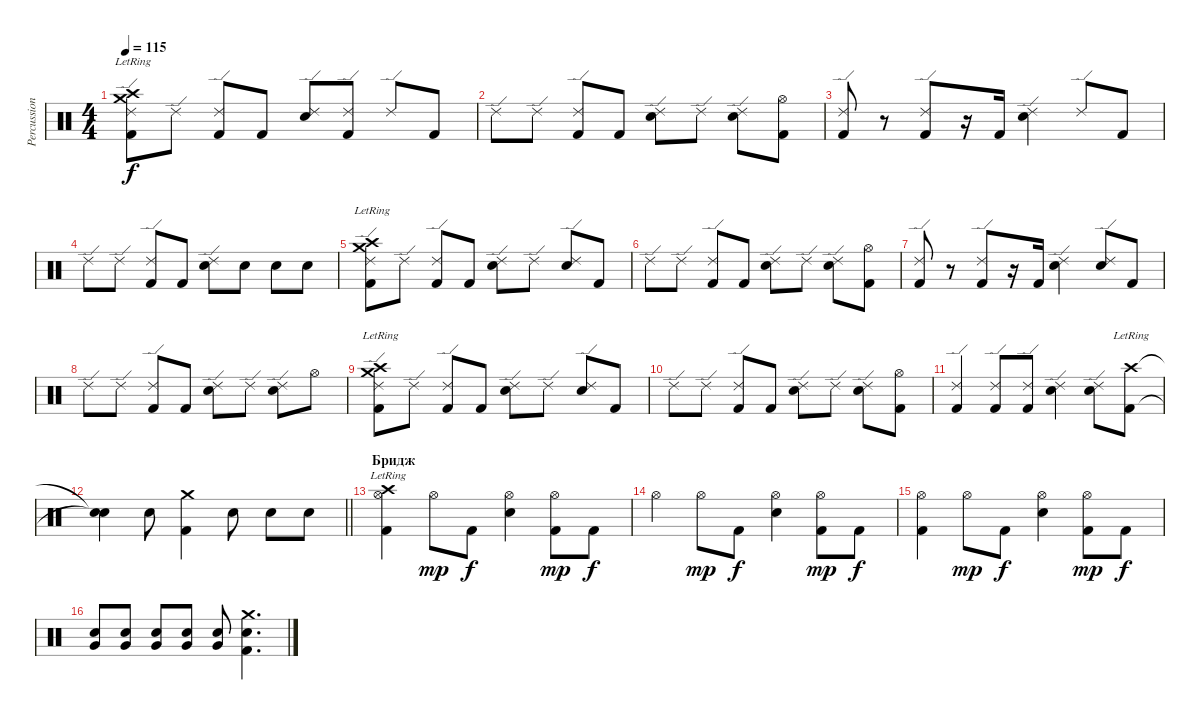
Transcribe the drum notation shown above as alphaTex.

\track ("Percussions" "Percussion") {instrument percussion}
\staff {score}
\articulation defaults
\ts (4 4)
\tempo 115
\clef neutral
\ks c
("Crash medium (hit)"{lr} "Crash high (hit)"{lr} "Kick (hit) 2" "Ride (edge) 2").8{dy f} "Ride (edge) 2".8 ("Kick (hit) 2" "Ride (edge) 2").8 "Kick (hit) 2".8 ("Electric Snare (hit)" "Ride (edge) 2").8 ("Kick (hit) 2" "Ride (edge) 2").8 "Ride (edge) 2".8 "Kick (hit) 2".8 |
"Ride (edge) 2".8 "Ride (edge) 2".8 ("Ride (edge) 2" "Kick (hit) 2").8 "Kick (hit) 2".8 ("Electric Snare (hit)" "Ride (edge) 2").8 "Ride (edge) 2".8 ("Electric Snare (hit)" "Ride (edge) 2").8 ("Kick (hit) 2" "Hi-Hat (open)").8 |
("Ride (edge) 2" "Kick (hit) 2").8 r.8 ("Ride (edge) 2" "Kick (hit) 2").8 r.16 "Kick (hit) 2".16 ("Ride (edge) 2" "Electric Snare (hit)").4 "Ride (edge) 2".8 "Kick (hit) 2".8 |
"Ride (edge) 2".8 "Ride (edge) 2".8 ("Ride (edge) 2" "Kick (hit) 2").8 "Kick (hit) 2".8 ("Electric Snare (hit)" "Ride (edge) 2").8 "Electric Snare (hit)".8 "Electric Snare (hit)".8 "Electric Snare (hit)".8 |
("Crash medium (hit)"{lr} "Crash high (hit)"{lr} "Kick (hit) 2" "Ride (edge) 2").8 "Ride (edge) 2".8 ("Kick (hit) 2" "Ride (edge) 2").8 "Kick (hit) 2".8 ("Electric Snare (hit)" "Ride (edge) 2").8 "Ride (edge) 2".8 ("Electric Snare (hit)" "Ride (edge) 2").8 "Kick (hit) 2".8 |
"Ride (edge) 2".8 "Ride (edge) 2".8 ("Ride (edge) 2" "Kick (hit) 2").8 "Kick (hit) 2".8 ("Electric Snare (hit)" "Ride (edge) 2").8 "Ride (edge) 2".8 ("Electric Snare (hit)" "Ride (edge) 2").8 ("Kick (hit) 2" "Hi-Hat (open)").8 |
("Ride (edge) 2" "Kick (hit) 2").8 r.8 ("Ride (edge) 2" "Kick (hit) 2").8 r.16 "Kick (hit) 2".16 ("Ride (edge) 2" "Electric Snare (hit)").4 ("Ride (edge) 2" "Electric Snare (hit)").8 "Kick (hit) 2".8 |
"Ride (edge) 2".8 "Ride (edge) 2".8 ("Ride (edge) 2" "Kick (hit) 2").8 "Kick (hit) 2".8 ("Electric Snare (hit)" "Ride (edge) 2").8 "Ride (edge) 2".8 ("Electric Snare (hit)" "Ride (edge) 2").8 "Hi-Hat (open)".8 |
("Crash medium (hit)"{lr} "Crash high (hit)"{lr} "Kick (hit) 2" "Ride (edge) 2").8 "Ride (edge) 2".8 ("Kick (hit) 2" "Ride (edge) 2").8 "Kick (hit) 2".8 ("Electric Snare (hit)" "Ride (edge) 2").8 "Ride (edge) 2".8 ("Electric Snare (hit)" "Ride (edge) 2").8 "Kick (hit) 2".8 |
"Ride (edge) 2".8 "Ride (edge) 2".8 ("Ride (edge) 2" "Kick (hit) 2").8 "Kick (hit) 2".8 ("Electric Snare (hit)" "Ride (edge) 2").8 "Ride (edge) 2".8 ("Electric Snare (hit)" "Ride (edge) 2").8 ("Kick (hit) 2" "Hi-Hat (open)").8 |
("Ride (edge) 2" "Kick (hit) 2").4 ("Ride (edge) 2" "Kick (hit) 2").8 ("Ride (edge) 2" "Kick (hit) 2").8 ("Ride (edge) 2" "Electric Snare (hit)").4 ("Ride (edge) 2" "Electric Snare (hit)").8 ("Crash high (hit)"{lr} "Kick (hit) 2").8 |
\barLineRight lightlight
("Snare (hit)"{t} "Snare (hit)"{t}).4 "Electric Snare (hit)".8 ("Crash medium (hit)" "Kick (hit) 2").4 "Electric Snare (hit)".8 "Electric Snare (hit)".8 "Electric Snare (hit)".8 |
\section ("" "Бридж")
("Crash high (hit)"{lr} "Kick (hit) 2" "Hi-Hat (open)").4 "Hi-Hat (open)".8{dy mp} "Kick (hit) 2".8{dy f} ("Electric Snare (hit)" "Hi-Hat (open)").4 ("Kick (hit) 2" "Hi-Hat (open)").8{dy mp} "Kick (hit) 2".8{dy f} |
"Hi-Hat (open)".4 "Hi-Hat (open)".8{dy mp} "Kick (hit) 2".8{dy f} ("Electric Snare (hit)" "Hi-Hat (open)").4 ("Kick (hit) 2" "Hi-Hat (open)").8{dy mp} "Kick (hit) 2".8{dy f} |
("Kick (hit) 2" "Hi-Hat (open)").4 "Hi-Hat (open)".8{dy mp} "Kick (hit) 2".8{dy f} ("Electric Snare (hit)" "Hi-Hat (open)").4 ("Kick (hit) 2" "Hi-Hat (open)").8{dy mp} "Kick (hit) 2".8{dy f} |
("Electric Snare (hit)" "Very Low Tom (hit)").8 ("Electric Snare (hit)" "Very Low Tom (hit)").8 ("Electric Snare (hit)" "Very Low Tom (hit)").8 ("Electric Snare (hit)" "Very Low Tom (hit)").8 ("Electric Snare (hit)" "Very Low Tom (hit)").8 ("Crash medium (hit)" "Electric Snare (hit)" "Kick (hit) 2").4{d}
